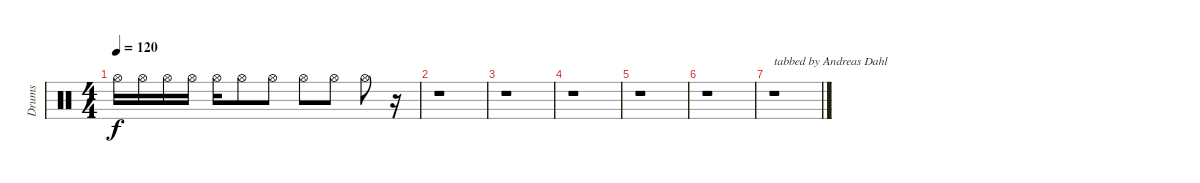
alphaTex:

\track ("Drums" "Drums") {instrument percussion}
\staff {score}
\articulation defaults
\ts (4 4)
\tempo 120
\clef neutral
\ks c "Hi-Hat (open)".16{dy f} "Hi-Hat (open)".16 "Hi-Hat (open)".16 "Hi-Hat (open)".16 "Hi-Hat (open)".16 "Hi-Hat (open)".8 "Hi-Hat (open)".8 "Hi-Hat (open)".8 "Hi-Hat (open)".8 "Hi-Hat (open)".8
r.16 |
r.1 |
r.1 |
r.1 |
r.1 |
r.1 |
r.1{txt "tabbed by Andreas Dahl"}
